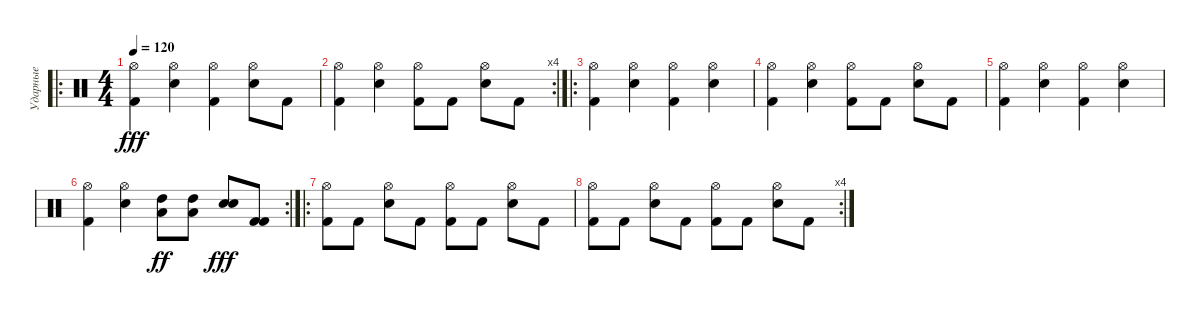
\track ("Ударные" "Ударные") {instrument percussion}
\staff {score}
\articulation defaults
\ro
\ts (4 4)
\tempo 120
\clef neutral
\ks c
("Hi-Hat (open)" "Kick (hit) 2").4{dy fff} ("Hi-Hat (open)" "Electric Snare (hit)").4 ("Hi-Hat (open)" "Kick (hit) 2").4 ("Hi-Hat (open)" "Electric Snare (hit)").8 "Kick (hit) 2".8 |
\rc 4
("Hi-Hat (open)" "Kick (hit) 2").4 ("Hi-Hat (open)" "Electric Snare (hit)").4 ("Hi-Hat (open)" "Kick (hit) 2").8 "Kick (hit) 2".8 ("Hi-Hat (open)" "Electric Snare (hit)").8 "Kick (hit) 2".8 |
\ro
("Hi-Hat (open)" "Kick (hit) 2").4 ("Hi-Hat (open)" "Electric Snare (hit)").4 ("Hi-Hat (open)" "Kick (hit) 2").4 ("Hi-Hat (open)" "Electric Snare (hit)").4 |
("Hi-Hat (open)" "Kick (hit) 2").4 ("Hi-Hat (open)" "Electric Snare (hit)").4 ("Hi-Hat (open)" "Kick (hit) 2").8 "Kick (hit) 2".8 ("Hi-Hat (open)" "Electric Snare (hit)").8 "Kick (hit) 2".8 |
("Hi-Hat (open)" "Kick (hit) 2").4 ("Hi-Hat (open)" "Electric Snare (hit)").4 ("Hi-Hat (open)" "Kick (hit) 2").4 ("Hi-Hat (open)" "Electric Snare (hit)").4 |
\rc 2
("Hi-Hat (open)" "Kick (hit) 2").4 ("Hi-Hat (open)" "Electric Snare (hit)").4 ("Low Tom (hit)" "High Tom (hit)").8{bd 60 dy ff} ("Low Tom (hit)" "High Tom (hit)").8{bd 60} ("Electric Snare (hit)" "Electric Snare (hit)").8{bd 60 dy fff} ("Kick (hit) 2" "Kick (hit) 2").8{bd 60} |
\ro
("Hi-Hat (open)" "Kick (hit) 2").8 "Kick (hit) 2".8 ("Hi-Hat (open)" "Electric Snare (hit)").8 "Kick (hit) 2".8 ("Hi-Hat (open)" "Kick (hit) 2").8 "Kick (hit) 2".8 ("Hi-Hat (open)" "Electric Snare (hit)").8 "Kick (hit) 2".8 |
\rc 4
("Hi-Hat (open)" "Kick (hit) 2").8 "Kick (hit) 2".8 ("Hi-Hat (open)" "Electric Snare (hit)").8 "Kick (hit) 2".8 ("Hi-Hat (open)" "Kick (hit) 2").8 "Kick (hit) 2".8 ("Hi-Hat (open)" "Electric Snare (hit)").8 "Kick (hit) 2".8
